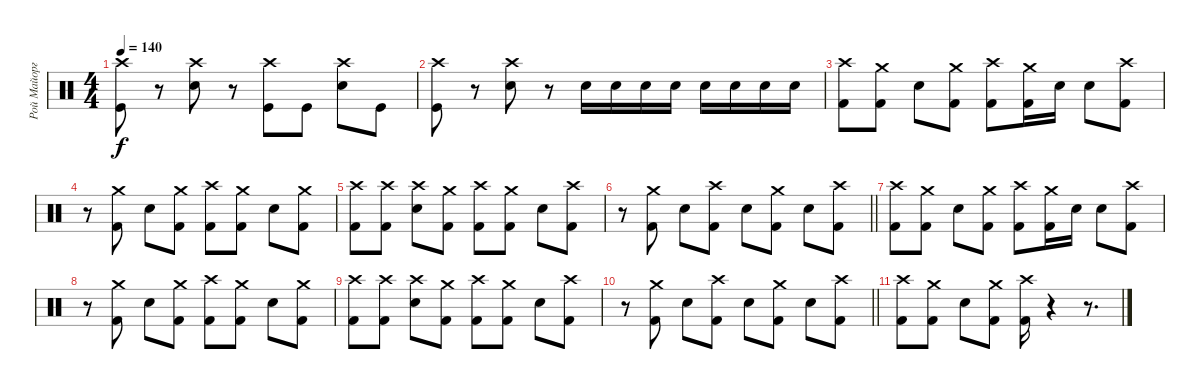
\track ("Рой Майорга" "Рой Майорг") {instrument percussion}
\staff {score}
\articulation defaults
\ts (4 4)
\tempo 140
\clef neutral
\ks c
("Crash high (hit)" "Kick (hit)").8{dy f} r.8 ("Crash high (hit)" "Snare (hit) 2").8 r.8 ("Crash high (hit)" "Kick (hit)").8 "Kick (hit)".8 ("Crash high (hit)" "Snare (hit) 2").8 "Kick (hit)".8 |
("Crash high (hit)" "Kick (hit)").8 r.8 ("Crash high (hit)" "Snare (hit) 2").8 r.8 "Snare (hit) 2".16 "Snare (hit) 2".16 "Snare (hit) 2".16 "Snare (hit) 2".16 "Snare (hit) 2".16 "Snare (hit) 2".16 "Snare (hit) 2".16 "Snare (hit) 2".16 |
("Crash high (hit)" "Kick (hit) 2").8 ("Crash medium (hit)" "Kick (hit) 2").8 "Snare (hit) 2".8 ("Crash medium (hit)" "Kick (hit) 2").8 ("Crash high (hit)" "Kick (hit) 2").8 ("Crash medium (hit)" "Kick (hit) 2").16 "Snare (hit) 2".16 "Snare (hit) 2".8 ("Crash high (hit)" "Kick (hit) 2").8 |
r.8 ("Crash medium (hit)" "Kick (hit) 2").8 "Snare (hit) 2".8 ("Crash medium (hit)" "Kick (hit) 2").8 ("Crash high (hit)" "Kick (hit) 2").8 ("Crash medium (hit)" "Kick (hit) 2").8 "Snare (hit) 2".8 ("Crash medium (hit)" "Kick (hit) 2").8 |
("Crash high (hit)" "Kick (hit) 2").8 ("Crash high (hit)" "Kick (hit) 2").8 ("Crash high (hit)" "Snare (hit) 2").8 ("Crash medium (hit)" "Kick (hit) 2").8 ("Crash high (hit)" "Kick (hit) 2").8 ("Crash medium (hit)" "Kick (hit) 2").8 "Snare (hit) 2".8 ("Crash high (hit)" "Kick (hit) 2").8 |
\barLineRight lightlight
r.8 ("Crash medium (hit)" "Kick (hit) 2").8 "Snare (hit) 2".8 ("Crash high (hit)" "Kick (hit) 2").8 "Snare (hit) 2".8 ("Crash medium (hit)" "Kick (hit) 2").8 "Snare (hit) 2".8 ("Crash high (hit)" "Kick (hit) 2").8 |
("Crash high (hit)" "Kick (hit) 2").8 ("Crash medium (hit)" "Kick (hit) 2").8 "Snare (hit) 2".8 ("Crash medium (hit)" "Kick (hit) 2").8 ("Crash high (hit)" "Kick (hit) 2").8 ("Crash medium (hit)" "Kick (hit) 2").16 "Snare (hit) 2".16 "Snare (hit) 2".8 ("Crash high (hit)" "Kick (hit) 2").8 |
r.8 ("Crash medium (hit)" "Kick (hit) 2").8 "Snare (hit) 2".8 ("Crash medium (hit)" "Kick (hit) 2").8 ("Crash high (hit)" "Kick (hit) 2").8 ("Crash medium (hit)" "Kick (hit) 2").8 "Snare (hit) 2".8 ("Crash medium (hit)" "Kick (hit) 2").8 |
("Crash high (hit)" "Kick (hit) 2").8 ("Crash high (hit)" "Kick (hit) 2").8 ("Crash high (hit)" "Snare (hit) 2").8 ("Crash medium (hit)" "Kick (hit) 2").8 ("Crash high (hit)" "Kick (hit) 2").8 ("Crash medium (hit)" "Kick (hit) 2").8 "Snare (hit) 2".8 ("Crash high (hit)" "Kick (hit) 2").8 |
\barLineRight lightlight
r.8 ("Crash medium (hit)" "Kick (hit) 2").8 "Snare (hit) 2".8 ("Crash high (hit)" "Kick (hit) 2").8 "Snare (hit) 2".8 ("Crash medium (hit)" "Kick (hit) 2").8 "Snare (hit) 2".8 ("Crash high (hit)" "Kick (hit) 2").8 |
("Crash high (hit)" "Kick (hit) 2").8 ("Crash medium (hit)" "Kick (hit) 2").8 "Snare (hit) 2".8 ("Crash medium (hit)" "Kick (hit) 2").8 ("Crash high (hit)" "Kick (hit) 2").16 r.4 r.8{d}
